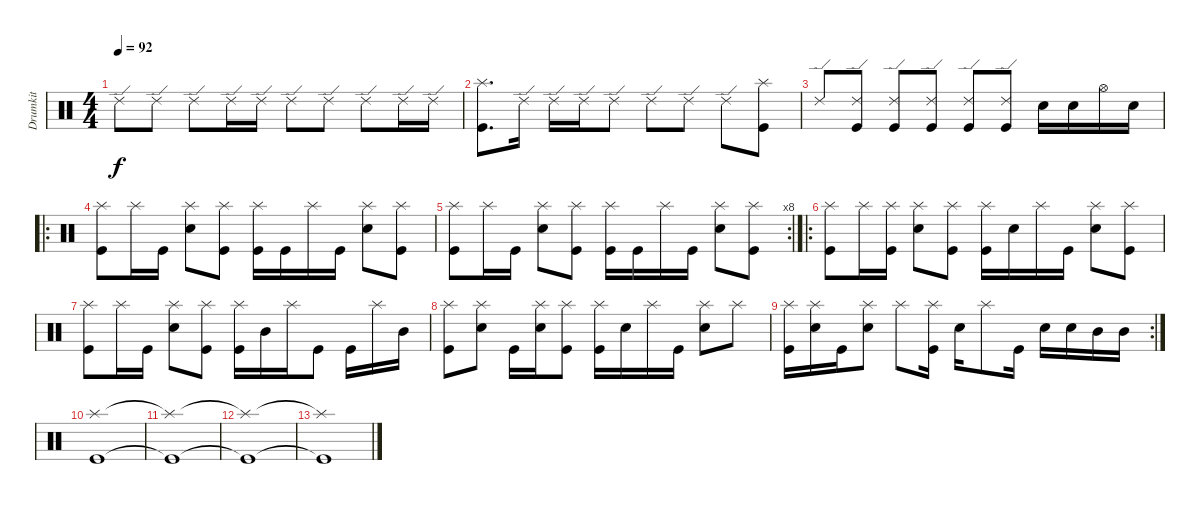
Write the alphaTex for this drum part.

\track ("Drumkit" "Drumkit") {instrument percussion}
\staff {score}
\articulation defaults
\ts (4 4)
\tempo 92
\clef neutral
\ks c "Ride (edge) 2".8{dy f} "Ride (edge) 2".8 "Ride (edge) 2".8 "Ride (edge) 2".16 "Ride (edge) 2".16 "Ride (edge) 2".8 "Ride (edge) 2".8 "Ride (edge) 2".8 "Ride (edge) 2".16 "Ride (edge) 2".16
|
("Kick (hit)" "Splash (hit)").8{d} "Ride (edge) 2".16 "Ride (edge) 2".16 "Ride (edge) 2".16 "Ride (edge) 2".8 "Ride (edge) 2".8 "Ride (edge) 2".8 "Ride (edge) 2".8 ("Splash (hit)" "Kick (hit)").8 |
"Ride (edge) 2".8 ("Ride (edge) 2" "Kick (hit)").8 ("Ride (edge) 2" "Kick (hit)").8 ("Ride (edge) 2" "Kick (hit)").8 ("Ride (edge) 2" "Kick (hit)").8 ("Ride (edge) 2" "Kick (hit)").8 "Snare (hit) 2".16 "Snare (hit) 2".16 "Hi-Hat (open)".16 "Snare (hit) 2".16 |
\ro
("Splash (hit)" "Kick (hit)").8 "Splash (hit)".16 "Kick (hit)".16 ("Snare (hit) 2" "Splash (hit)").8 ("Kick (hit)" "Splash (hit)").8 ("Kick (hit)" "Splash (hit)").16 "Kick (hit)".16 "Splash (hit)".16 "Kick (hit)".16 ("Snare (hit) 2" "Splash (hit)").8 ("Kick (hit)" "Splash (hit)").8 |
\rc 8
("Splash (hit)" "Kick (hit)").8 "Splash (hit)".16 "Kick (hit)".16 ("Snare (hit) 2" "Splash (hit)").8 ("Kick (hit)" "Splash (hit)").8 ("Kick (hit)" "Splash (hit)").16 "Kick (hit)".16 "Splash (hit)".16 "Kick (hit)".16 ("Snare (hit) 2" "Splash (hit)").8 ("Kick (hit)" "Splash (hit)").8 |
\ro
("Splash (hit)" "Kick (hit)").8 "Splash (hit)".16 ("Kick (hit)" "Splash (hit)").16 ("Snare (hit) 2" "Splash (hit)").8 ("Kick (hit)" "Splash (hit)").8 ("Kick (hit)" "Splash (hit)").16 "Snare (hit) 2".16 "Splash (hit)".16 "Kick (hit)".16 ("Snare (hit) 2" "Splash (hit)").8 ("Kick (hit)" "Splash (hit)").8 |
("Splash (hit)" "Kick (hit)").8 "Splash (hit)".16 "Kick (hit)".16 ("Snare (hit) 2" "Splash (hit)").8 ("Kick (hit)" "Splash (hit)").8 ("Kick (hit)" "Splash (hit)").16 "Mid Tom (hit)".16 "Splash (hit)".16 "Kick (hit)".8 "Kick (hit)".16 "Splash (hit)".16 "Mid Tom (hit)".16 |
("Kick (hit)" "Splash (hit)").8 ("Splash (hit)" "Snare (hit) 2").8 "Kick (hit)".16 ("Snare (hit) 2" "Splash (hit)").16 ("Kick (hit)" "Splash (hit)").8 ("Kick (hit)" "Splash (hit)").16 "Snare (hit) 2".16 "Splash (hit)".16 "Kick (hit)".16 ("Snare (hit) 2" "Splash (hit)").8 "Splash (hit)".8 |
\rc 2
("Kick (hit)" "Splash (hit)").16 ("Splash (hit)" "Snare (hit) 2").16 "Kick (hit)".16 ("Splash (hit)" "Snare (hit) 2").8 "Splash (hit)".8 ("Splash (hit)" "Kick (hit)").16 "Snare (hit) 2".16 "Splash (hit)".8 "Kick (hit)".16 "Snare (hit) 2".16 "Snare (hit) 2".16 "Mid Tom (hit)".16 "Mid Tom (hit)".16 |
("Splash (hit)" "Kick (hit)").1 |
("Splash (hit)"{t} "Kick (hit)"{t}).1 |
("Splash (hit)"{t} "Kick (hit)"{t}).1 |
("Splash (hit)"{t} "Kick (hit)"{t}).1
